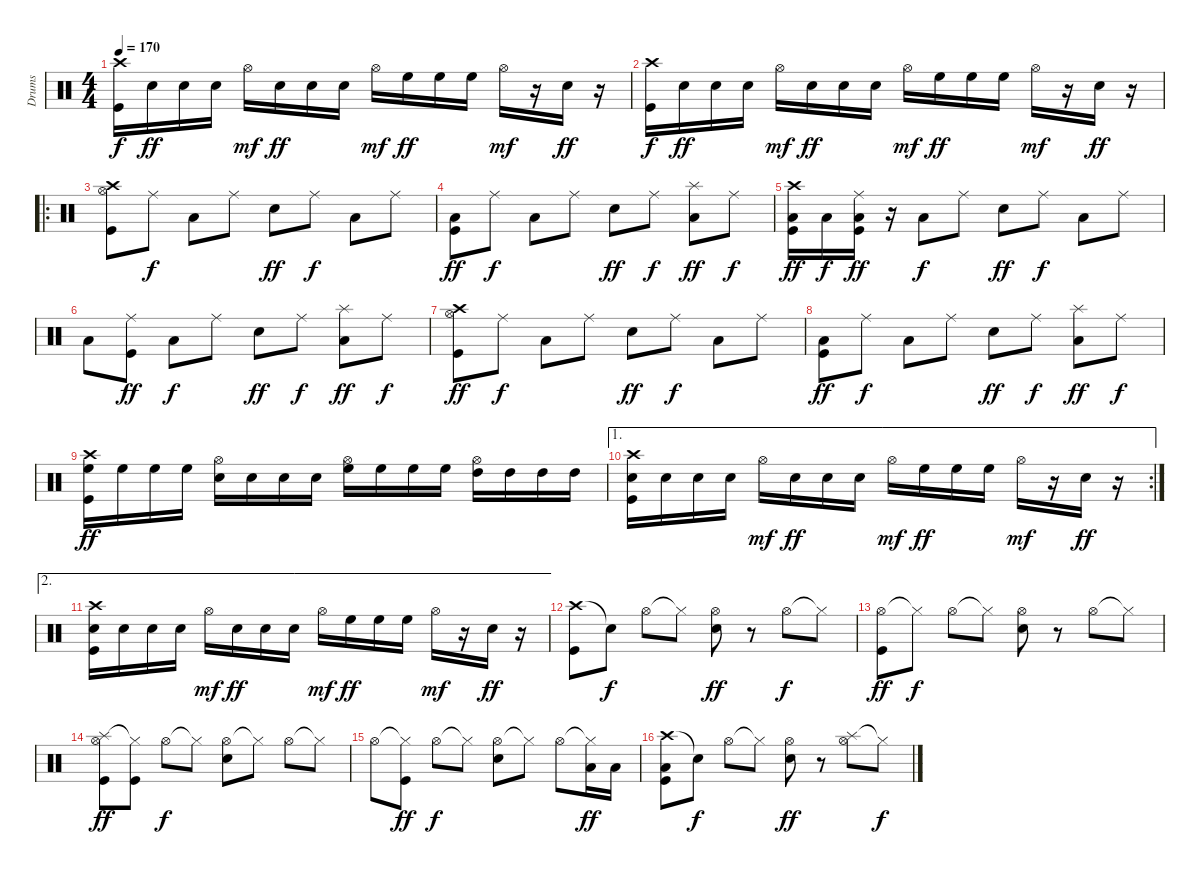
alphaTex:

\track ("Drums" "Drums") {instrument percussion}
\staff {score}
\articulation defaults
\ts (4 4)
\tempo 170
\clef neutral
\ks c
("Crash high (hit)" "Kick (hit)").16{dy f} "Snare (hit) 2".16{dy ff} "Snare (hit) 2".16 "Snare (hit) 2".16 "Hi-Hat (open)".16{dy mf} "Snare (hit) 2".16{dy ff} "Snare (hit) 2".16 "Snare (hit) 2".16 "Hi-Hat (open)".16{dy mf} "High Floor Tom (hit)".16{dy ff} "High Floor Tom (hit)".16 "High Floor Tom (hit)".16 "Hi-Hat (open)".16{dy mf} r.16 "Snare (hit) 2".16{dy ff} r.16 |
("Crash high (hit)" "Kick (hit)").16{dy f} "Snare (hit) 2".16{dy ff} "Snare (hit) 2".16 "Snare (hit) 2".16 "Hi-Hat (open)".16{dy mf} "Snare (hit) 2".16{dy ff} "Snare (hit) 2".16 "Snare (hit) 2".16 "Hi-Hat (open)".16{dy mf} "High Floor Tom (hit)".16{dy ff} "High Floor Tom (hit)".16 "High Floor Tom (hit)".16 "Hi-Hat (open)".16{dy mf} r.16 "Snare (hit) 2".16{dy ff} r.16 |
\ro
("Crash high (hit)" "Hi-Hat (open)" "Kick (hit)").8 "Ride (middle)".8{dy f} "Low Tom (hit)".8 "Ride (middle)".8 "Snare (hit) 2".8{dy ff} "Ride (middle)".8{dy f} "Low Tom (hit)".8 "Ride (middle)".8 |
("Low Tom (hit)" "Kick (hit)").8{dy ff} "Ride (middle)".8{dy f} "Low Tom (hit)".8 "Ride (middle)".8 "Snare (hit) 2".8{dy ff} "Ride (middle)".8{dy f} ("Splash (hit)" "Low Tom (hit)").8{dy ff} "Ride (middle)".8{dy f} |
("Crash high (hit)" "Low Tom (hit)" "Kick (hit)").16{dy ff} "Low Tom (hit)".16{dy f} ("Ride (middle)" "Low Tom (hit)" "Kick (hit)").16{dy ff} r.16 "Low Tom (hit)".8{dy f} "Ride (middle)".8 "Snare (hit) 2".8{dy ff} "Ride (middle)".8{dy f} "Low Tom (hit)".8 "Ride (middle)".8 |
"Low Tom (hit)".8 ("Ride (middle)" "Kick (hit)").8{dy ff} "Low Tom (hit)".8{dy f} "Ride (middle)".8 "Snare (hit) 2".8{dy ff} "Ride (middle)".8{dy f} ("Splash (hit)" "Low Tom (hit)").8{dy ff} "Ride (middle)".8{dy f} |
("Crash high (hit)" "Hi-Hat (open)" "Kick (hit)").8{dy ff} "Ride (middle)".8{dy f} "Low Tom (hit)".8 "Ride (middle)".8 "Snare (hit) 2".8{dy ff} "Ride (middle)".8{dy f} "Low Tom (hit)".8 "Ride (middle)".8 |
("Low Tom (hit)" "Kick (hit)").8{dy ff} "Ride (middle)".8{dy f} "Low Tom (hit)".8 "Ride (middle)".8 "Snare (hit) 2".8{dy ff} "Ride (middle)".8{dy f} ("Splash (hit)" "Low Tom (hit)").8{dy ff} "Ride (middle)".8{dy f} |
("Crash high (hit)" "High Floor Tom (hit)" "Kick (hit)").16{dy ff} "High Floor Tom (hit)".16 "High Floor Tom (hit)".16 "High Floor Tom (hit)".16 ("Hi-Hat (open)" "Snare (hit) 2").16 "Snare (hit) 2".16 "Snare (hit) 2".16 "Snare (hit) 2".16 ("Hi-Hat (open)" "High Floor Tom (hit)").16 "High Floor Tom (hit)".16 "High Floor Tom (hit)".16 "High Floor Tom (hit)".16 ("Hi-Hat (open)" "High Tom (hit)").16 "High Tom (hit)".16 "High Tom (hit)".16 "High Tom (hit)".16 |
\ae 1
\rc 2
("Crash high (hit)" "Snare (hit) 2" "Kick (hit)").16 "Snare (hit) 2".16 "Snare (hit) 2".16 "Snare (hit) 2".16 "Hi-Hat (open)".16{dy mf} "Snare (hit) 2".16{dy ff} "Snare (hit) 2".16 "Snare (hit) 2".16 "Hi-Hat (open)".16{dy mf} "High Floor Tom (hit)".16{dy ff} "High Floor Tom (hit)".16 "High Floor Tom (hit)".16 "Hi-Hat (open)".16{dy mf} r.16 "Snare (hit) 2".16{dy ff} r.16 |
\ae 2
("Crash high (hit)" "Snare (hit) 2" "Kick (hit)").16 "Snare (hit) 2".16 "Snare (hit) 2".16 "Snare (hit) 2".16 "Hi-Hat (open)".16{dy mf} "Snare (hit) 2".16{dy ff} "Snare (hit) 2".16 "Snare (hit) 2".16 "Hi-Hat (open)".16{dy mf} "High Floor Tom (hit)".16{dy ff} "High Floor Tom (hit)".16 "High Floor Tom (hit)".16 "Hi-Hat (open)".16{dy mf} r.16 "Snare (hit) 2".16{dy ff} r.16 |
("Crash high (hit)" "Kick (hit)").8 "Snare (hit)"{t}.8{dy f} "Hi-Hat (open)".8 "Hi-Hat (closed)"{t}.8 ("Hi-Hat (open)" "Snare (hit) 2").8{dy ff} r.8 "Hi-Hat (open)".8{dy f} "Hi-Hat (closed)"{t}.8 |
("Hi-Hat (open)" "Kick (hit)").8{dy ff} "Hi-Hat (closed)"{t}.8{dy f} "Hi-Hat (open)".8 "Hi-Hat (closed)"{t}.8 ("Hi-Hat (open)" "Snare (hit) 2").8 r.8 "Hi-Hat (open)".8 "Hi-Hat (closed)"{t}.8 |
("Splash (hit)" "Hi-Hat (open)" "Kick (hit)").8{dy ff} ("Hi-Hat (closed)"{t} "Kick (hit)").8 "Hi-Hat (open)".8{dy f} "Hi-Hat (closed)"{t}.8 ("Hi-Hat (open)" "Snare (hit) 2").8 "Hi-Hat (closed)"{t}.8 "Hi-Hat (open)".8 "Hi-Hat (closed)"{t}.8 |
"Hi-Hat (open)".8 ("Hi-Hat (closed)"{t} "Kick (hit)").8{dy ff} "Hi-Hat (open)".8{dy f} "Hi-Hat (closed)"{t}.8 ("Hi-Hat (open)" "Snare (hit) 2").8 "Hi-Hat (closed)"{t}.8 "Hi-Hat (open)".8 ("Hi-Hat (closed)"{t} "Low Tom (hit)").16{dy ff} "Low Tom (hit)".16 |
("Crash high (hit)" "Low Tom (hit)" "Kick (hit)").8 "Snare (hit)"{t}.8{dy f} "Hi-Hat (open)".8 "Hi-Hat (closed)"{t}.8 ("Hi-Hat (open)" "Snare (hit) 2").8{dy ff} r.8 ("Splash (hit)" "Hi-Hat (open)").8 "Hi-Hat (closed)"{t}.8{dy f}
